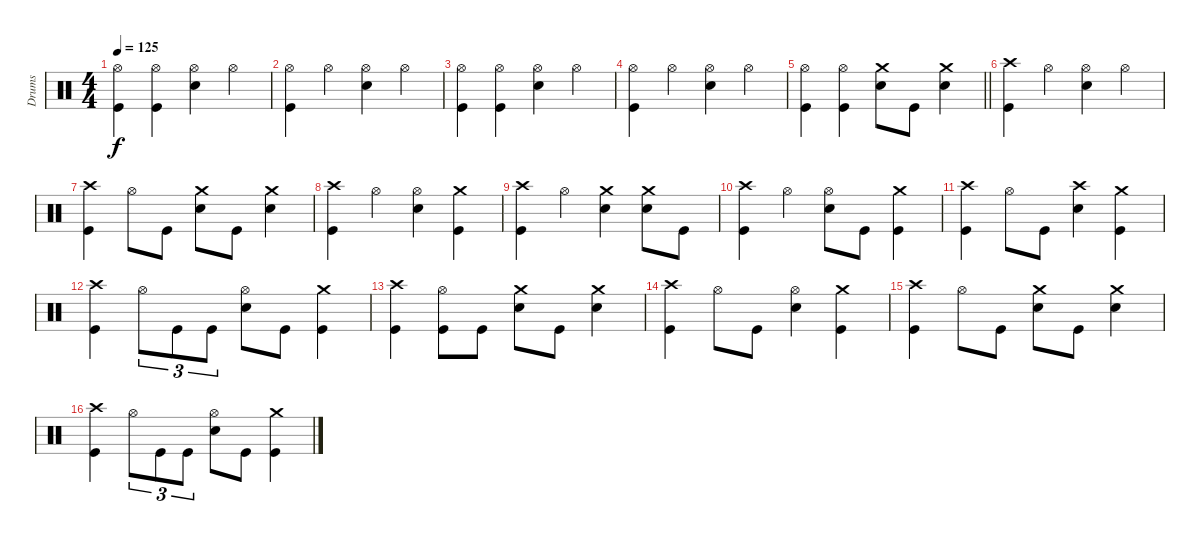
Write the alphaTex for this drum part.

\track ("Drums" "Drums") {instrument percussion}
\staff {score}
\articulation defaults
\ts (4 4)
\tempo 125
\clef neutral
\ks c
("Hi-Hat (open)" "Kick (hit)").4{dy f} ("Hi-Hat (open)" "Kick (hit)").4 ("Hi-Hat (open)" "Snare (hit) 2").4 "Hi-Hat (open)".4 |
("Hi-Hat (open)" "Kick (hit)").4 "Hi-Hat (open)".4 ("Hi-Hat (open)" "Snare (hit) 2").4 "Hi-Hat (open)".4 |
("Hi-Hat (open)" "Kick (hit)").4 ("Hi-Hat (open)" "Kick (hit)").4 ("Hi-Hat (open)" "Snare (hit) 2").4 "Hi-Hat (open)".4 |
("Hi-Hat (open)" "Kick (hit)").4 "Hi-Hat (open)".4 ("Hi-Hat (open)" "Snare (hit) 2").4 "Hi-Hat (open)".4 |
\barLineRight lightlight
("Hi-Hat (open)" "Kick (hit)").4 ("Hi-Hat (open)" "Kick (hit)").4 ("Crash medium (hit)" "Snare (hit) 2").8 "Kick (hit)".8 ("Crash medium (hit)" "Snare (hit) 2").4 |
("Crash high (hit)" "Kick (hit)").4 "Hi-Hat (open)".4 ("Hi-Hat (open)" "Snare (hit) 2").4 "Hi-Hat (open)".4 |
("Crash high (hit)" "Kick (hit)").4 "Hi-Hat (open)".8 "Kick (hit)".8 ("Crash medium (hit)" "Snare (hit) 2").8 "Kick (hit)".8 ("Crash medium (hit)" "Snare (hit) 2").4 |
("Crash high (hit)" "Kick (hit)").4 "Hi-Hat (open)".4 ("Hi-Hat (open)" "Snare (hit) 2").4 ("Crash medium (hit)" "Kick (hit)").4 |
("Crash high (hit)" "Kick (hit)").4 "Hi-Hat (open)".4 ("Crash medium (hit)" "Snare (hit) 2").4 ("Crash medium (hit)" "Snare (hit) 2").8 "Kick (hit)".8 |
("Crash high (hit)" "Kick (hit)").4 "Hi-Hat (open)".4 ("Hi-Hat (open)" "Snare (hit) 2").8 "Kick (hit)".8 ("Crash medium (hit)" "Kick (hit)").4 |
("Crash high (hit)" "Kick (hit)").4 "Hi-Hat (open)".8 "Kick (hit)".8 ("Crash high (hit)" "Snare (hit) 2").4 ("Crash medium (hit)" "Kick (hit)").4 |
("Crash high (hit)" "Kick (hit)").4 "Hi-Hat (open)".8{tu (3 2)} "Kick (hit)".8{tu (3 2)} "Kick (hit)".8{tu (3 2)} ("Hi-Hat (open)" "Snare (hit) 2").8 "Kick (hit)".8 ("Crash medium (hit)" "Kick (hit)").4 |
("Crash high (hit)" "Kick (hit)").4 ("Hi-Hat (open)" "Kick (hit)").8 "Kick (hit)".8 ("Crash medium (hit)" "Snare (hit) 2").8 "Kick (hit)".8 ("Crash medium (hit)" "Snare (hit) 2").4 |
("Crash high (hit)" "Kick (hit)").4 "Hi-Hat (open)".8 "Kick (hit)".8 ("Hi-Hat (open)" "Snare (hit) 2").4 ("Crash medium (hit)" "Kick (hit)").4 |
("Crash high (hit)" "Kick (hit)").4 "Hi-Hat (open)".8 "Kick (hit)".8 ("Crash medium (hit)" "Snare (hit) 2").8 "Kick (hit)".8 ("Crash medium (hit)" "Snare (hit) 2").4 |
("Crash high (hit)" "Kick (hit)").4 "Hi-Hat (open)".8{tu (3 2)} "Kick (hit)".8{tu (3 2)} "Kick (hit)".8{tu (3 2)} ("Hi-Hat (open)" "Snare (hit) 2").8 "Kick (hit)".8 ("Crash medium (hit)" "Kick (hit)").4
